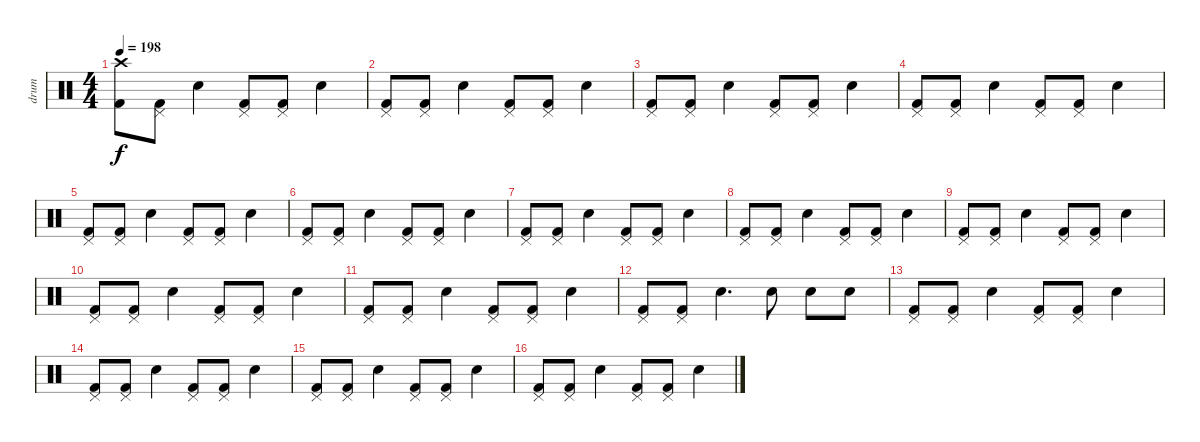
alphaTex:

\track ("drum" "drum") {instrument percussion}
\staff {score}
\articulation defaults
\ts (4 4)
\tempo 198
\clef neutral
\ks c
("Crash high (hit)" "Kick (hit) 2").8{dy f} ("Pedal Hi-Hat (hit)" "Kick (hit) 2").8 "Electric Snare (hit)".4 ("Pedal Hi-Hat (hit)" "Kick (hit) 2").8 ("Pedal Hi-Hat (hit)" "Kick (hit) 2").8 "Electric Snare (hit)".4 |
("Pedal Hi-Hat (hit)" "Kick (hit) 2").8 ("Pedal Hi-Hat (hit)" "Kick (hit) 2").8 "Electric Snare (hit)".4 ("Pedal Hi-Hat (hit)" "Kick (hit) 2").8 ("Pedal Hi-Hat (hit)" "Kick (hit) 2").8 "Electric Snare (hit)".4 |
("Pedal Hi-Hat (hit)" "Kick (hit) 2").8 ("Pedal Hi-Hat (hit)" "Kick (hit) 2").8 "Electric Snare (hit)".4 ("Pedal Hi-Hat (hit)" "Kick (hit) 2").8 ("Pedal Hi-Hat (hit)" "Kick (hit) 2").8 "Electric Snare (hit)".4 |
("Pedal Hi-Hat (hit)" "Kick (hit) 2").8 ("Pedal Hi-Hat (hit)" "Kick (hit) 2").8 "Electric Snare (hit)".4 ("Pedal Hi-Hat (hit)" "Kick (hit) 2").8 ("Pedal Hi-Hat (hit)" "Kick (hit) 2").8 "Electric Snare (hit)".4 |
("Pedal Hi-Hat (hit)" "Kick (hit) 2").8 ("Pedal Hi-Hat (hit)" "Kick (hit) 2").8 "Electric Snare (hit)".4 ("Pedal Hi-Hat (hit)" "Kick (hit) 2").8 ("Pedal Hi-Hat (hit)" "Kick (hit) 2").8 "Electric Snare (hit)".4 |
("Pedal Hi-Hat (hit)" "Kick (hit) 2").8 ("Pedal Hi-Hat (hit)" "Kick (hit) 2").8 "Electric Snare (hit)".4 ("Pedal Hi-Hat (hit)" "Kick (hit) 2").8 ("Pedal Hi-Hat (hit)" "Kick (hit) 2").8 "Electric Snare (hit)".4 |
("Pedal Hi-Hat (hit)" "Kick (hit) 2").8 ("Pedal Hi-Hat (hit)" "Kick (hit) 2").8 "Electric Snare (hit)".4 ("Pedal Hi-Hat (hit)" "Kick (hit) 2").8 ("Pedal Hi-Hat (hit)" "Kick (hit) 2").8 "Electric Snare (hit)".4 |
("Pedal Hi-Hat (hit)" "Kick (hit) 2").8 ("Pedal Hi-Hat (hit)" "Kick (hit) 2").8 "Electric Snare (hit)".4 ("Pedal Hi-Hat (hit)" "Kick (hit) 2").8 ("Pedal Hi-Hat (hit)" "Kick (hit) 2").8 "Electric Snare (hit)".4 |
("Pedal Hi-Hat (hit)" "Kick (hit) 2").8 ("Pedal Hi-Hat (hit)" "Kick (hit) 2").8 "Electric Snare (hit)".4 ("Pedal Hi-Hat (hit)" "Kick (hit) 2").8 ("Pedal Hi-Hat (hit)" "Kick (hit) 2").8 "Electric Snare (hit)".4 |
("Pedal Hi-Hat (hit)" "Kick (hit) 2").8 ("Pedal Hi-Hat (hit)" "Kick (hit) 2").8 "Electric Snare (hit)".4 ("Pedal Hi-Hat (hit)" "Kick (hit) 2").8 ("Pedal Hi-Hat (hit)" "Kick (hit) 2").8 "Electric Snare (hit)".4 |
("Pedal Hi-Hat (hit)" "Kick (hit) 2").8 ("Pedal Hi-Hat (hit)" "Kick (hit) 2").8 "Electric Snare (hit)".4 ("Pedal Hi-Hat (hit)" "Kick (hit) 2").8 ("Pedal Hi-Hat (hit)" "Kick (hit) 2").8 "Electric Snare (hit)".4 |
("Pedal Hi-Hat (hit)" "Kick (hit) 2").8 ("Pedal Hi-Hat (hit)" "Kick (hit) 2").8 "Electric Snare (hit)".4{d} "Electric Snare (hit)".8 "Electric Snare (hit)".8 "Electric Snare (hit)".8 |
("Pedal Hi-Hat (hit)" "Kick (hit) 2").8 ("Pedal Hi-Hat (hit)" "Kick (hit) 2").8 "Electric Snare (hit)".4 ("Pedal Hi-Hat (hit)" "Kick (hit) 2").8 ("Pedal Hi-Hat (hit)" "Kick (hit) 2").8 "Electric Snare (hit)".4 |
("Pedal Hi-Hat (hit)" "Kick (hit) 2").8 ("Pedal Hi-Hat (hit)" "Kick (hit) 2").8 "Electric Snare (hit)".4 ("Pedal Hi-Hat (hit)" "Kick (hit) 2").8 ("Pedal Hi-Hat (hit)" "Kick (hit) 2").8 "Electric Snare (hit)".4 |
("Pedal Hi-Hat (hit)" "Kick (hit) 2").8 ("Pedal Hi-Hat (hit)" "Kick (hit) 2").8 "Electric Snare (hit)".4 ("Pedal Hi-Hat (hit)" "Kick (hit) 2").8 ("Pedal Hi-Hat (hit)" "Kick (hit) 2").8 "Electric Snare (hit)".4 |
("Pedal Hi-Hat (hit)" "Kick (hit) 2").8 ("Pedal Hi-Hat (hit)" "Kick (hit) 2").8 "Electric Snare (hit)".4 ("Pedal Hi-Hat (hit)" "Kick (hit) 2").8 ("Pedal Hi-Hat (hit)" "Kick (hit) 2").8 "Electric Snare (hit)".4
